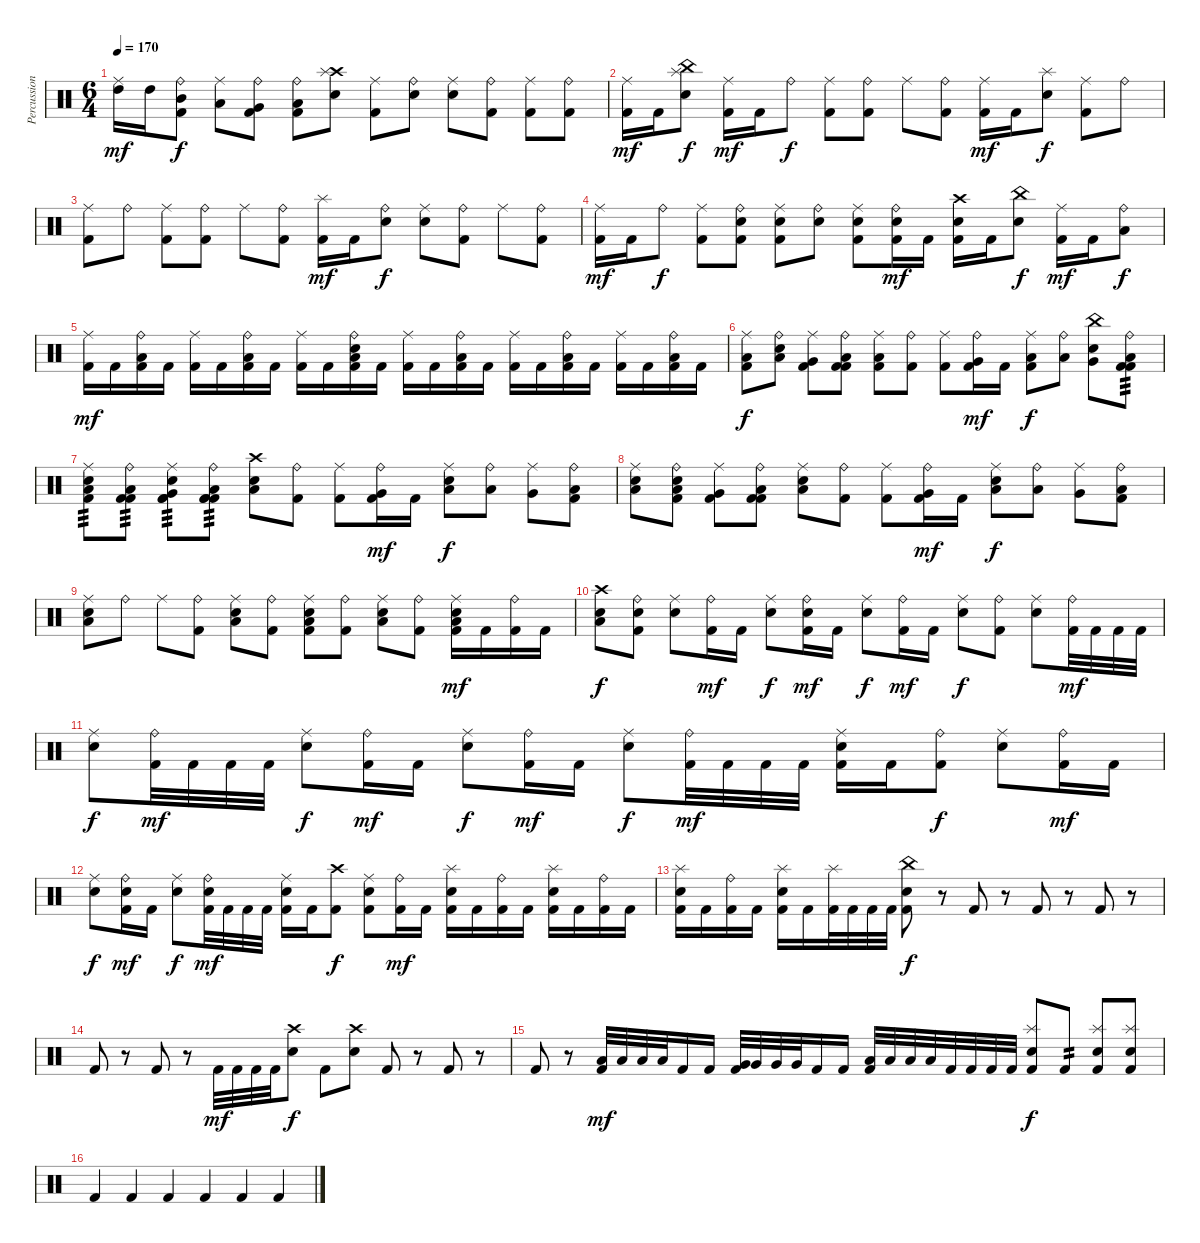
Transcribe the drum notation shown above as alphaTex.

\track ("Percussion" "Percussion") {instrument percussion}
\staff {score}
\articulation defaults
\ts (6 4)
\tempo 170
\clef neutral
\ks c
("Ride (middle)" "High Tom (hit)").16{dy mf} "High Tom (hit)".16 ("Ride (bell)" "Mid Tom (hit)" "Kick (hit) 2").8{dy f} ("Ride (middle)" "Low Tom (hit)").8 ("Ride (bell)" "Very Low Tom (hit)" "Kick (hit) 2").8 ("Ride (bell)" "Low Floor Tom (hit)" "Kick (hit) 2").8 ("Crash high (hit)" "Splash (hit)" "Snare (hit) 2").8 ("Ride (middle)" "Kick (hit) 2").8 ("Ride (bell)" "Snare (hit) 2").8 ("Ride (middle)" "Snare (hit) 2").8 ("Ride (bell)" "Kick (hit) 2").8 ("Ride (middle)" "Kick (hit) 2").8 ("Ride (bell)" "Kick (hit) 2").8 |
("Ride (middle)" "Kick (hit) 2").16{dy mf} "Kick (hit) 2".16 ("Splash (hit)" "China (hit)" "Snare (hit) 2").8{dy f} ("Ride (middle)" "Kick (hit) 2").16{dy mf} "Kick (hit) 2".16 "Ride (bell)".8{dy f} ("Ride (middle)" "Kick (hit) 2").8 ("Ride (bell)" "Kick (hit) 2").8 "Ride (middle)".8 ("Ride (bell)" "Kick (hit) 2").8 ("Ride (middle)" "Kick (hit) 2").16{dy mf} "Kick (hit) 2".16 ("Splash (hit)" "Snare (hit) 2").8{dy f} ("Ride (middle)" "Kick (hit) 2").8 "Ride (bell)".8 |
("Ride (middle)" "Kick (hit) 2").8 "Ride (bell)".8 ("Ride (middle)" "Kick (hit) 2").8 ("Ride (bell)" "Kick (hit) 2").8 "Ride (middle)".8 ("Ride (bell)" "Kick (hit) 2").8 ("Splash (hit)" "Kick (hit) 2").16{dy mf} "Kick (hit) 2".16 ("Ride (bell)" "Snare (hit) 2").8{dy f} ("Ride (middle)" "Snare (hit) 2").8 ("Ride (bell)" "Kick (hit) 2").8 "Ride (middle)".8 ("Ride (bell)" "Kick (hit) 2").8 |
("Ride (middle)" "Kick (hit) 2").16{dy mf} "Kick (hit) 2".16 "Ride (bell)".8{dy f} ("Ride (middle)" "Kick (hit) 2").8 ("Ride (bell)" "Snare (hit) 2" "Kick (hit) 2").8 ("Ride (middle)" "Snare (hit) 2" "Kick (hit) 2").8 ("Ride (bell)" "Snare (hit) 2").8 ("Ride (middle)" "Snare (hit) 2" "Kick (hit) 2").8 ("Ride (bell)" "Snare (hit) 2" "Kick (hit) 2").16{dy mf} "Kick (hit) 2".16 ("Crash high (hit)" "Snare (hit) 2" "Kick (hit) 2").16 "Kick (hit) 2".16 ("China (hit)" "Snare (hit) 2").8{dy f} ("Ride (middle)" "Kick (hit) 2").16{dy mf} "Kick (hit) 2".16 ("Ride (bell)" "Low Tom (hit)").8{dy f} |
("Ride (middle)" "Kick (hit) 2").16{dy mf} "Kick (hit) 2".16 ("Ride (bell)" "Low Tom (hit)" "Kick (hit) 2").16 "Kick (hit) 2".16 ("Ride (middle)" "Kick (hit) 2").16 "Kick (hit) 2".16 ("Ride (bell)" "Low Tom (hit)" "Kick (hit) 2").16 "Kick (hit) 2".16 ("Ride (middle)" "Kick (hit) 2").16 "Kick (hit) 2".16 ("Ride (bell)" "Low Tom (hit)" "Snare (hit) 2" "Kick (hit) 2").16 "Kick (hit) 2".16 ("Ride (middle)" "Kick (hit) 2").16 "Kick (hit) 2".16 ("Ride (bell)" "Low Tom (hit)" "Kick (hit) 2").16 "Kick (hit) 2".16 ("Ride (middle)" "Kick (hit) 2").16 "Kick (hit) 2".16 ("Ride (bell)" "Low Tom (hit)" "Kick (hit) 2").16 "Kick (hit) 2".16 ("Ride (middle)" "Kick (hit) 2").16 "Kick (hit) 2".16 ("Ride (bell)" "Low Tom (hit)" "Kick (hit) 2").16 "Kick (hit) 2".16 |
("Ride (middle)" "Kick (hit) 2" "Low Floor Tom (hit)").8{dy f} ("Ride (bell)" "Low Tom (hit)" "Snare (hit) 2").8 ("Ride (middle)" "Very Low Tom (hit)" "Kick (hit) 2").8 ("Ride (bell)" "Low Floor Tom (hit)" "Kick (hit) 2" "Kick (hit) 2").8 ("Ride (middle)" "Kick (hit) 2" "Low Floor Tom (hit)").8 ("Ride (bell)" "Kick (hit) 2").8 ("Ride (middle)" "Kick (hit) 2").8 ("Ride (bell)" "Very Low Tom (hit)" "Kick (hit) 2").16{dy mf} "Kick (hit) 2".16 ("Ride (middle)" "Kick (hit) 2" "Low Floor Tom (hit)").8{dy f} ("Ride (bell)" "Low Tom (hit)").8 ("China (hit)" "Very Low Tom (hit)" "Snare (hit) 2").8 ("Ride (bell)" "Low Floor Tom (hit)" "Kick (hit) 2" "Kick (hit) 2").8{tp 3} |
("Ride (middle)" "Snare (hit) 2" "Low Floor Tom (hit)" "Kick (hit) 2").8{tp 3} ("Ride (bell)" "Low Tom (hit)" "Kick (hit) 2" "Kick (hit) 2").8{tp 3} ("Ride (middle)" "Very Low Tom (hit)" "Kick (hit) 2" "Snare (hit) 2" "Kick (hit) 2").8{tp 3} ("Ride (bell)" "Low Floor Tom (hit)" "Kick (hit) 2" "Kick (hit) 2" "Kick (hit) 2").8{tp 3} ("Crash high (hit)" "Snare (hit) 2" "Low Floor Tom (hit)").8 ("Ride (bell)" "Kick (hit) 2").8 ("Ride (middle)" "Kick (hit) 2").8 ("Ride (bell)" "Very Low Tom (hit)" "Kick (hit) 2").16{dy mf} "Kick (hit) 2".16 ("Ride (middle)" "Snare (hit) 2" "Low Floor Tom (hit)").8{dy f} ("Ride (bell)" "Low Tom (hit)").8 ("Ride (middle)" "Very Low Tom (hit)").8 ("Ride (bell)" "Low Floor Tom (hit)" "Kick (hit) 2").8 |
("Ride (middle)" "Snare (hit) 2" "Low Floor Tom (hit)").8 ("Ride (bell)" "Low Tom (hit)" "Kick (hit) 2" "Snare (hit) 2").8 ("Ride (middle)" "Very Low Tom (hit)" "Kick (hit) 2").8 ("Ride (bell)" "Low Floor Tom (hit)" "Kick (hit) 2" "Kick (hit) 2").8 ("Ride (middle)" "Snare (hit) 2" "Low Floor Tom (hit)").8 ("Ride (bell)" "Kick (hit) 2").8 ("Ride (middle)" "Kick (hit) 2").8 ("Ride (bell)" "Very Low Tom (hit)" "Kick (hit) 2").16{dy mf} "Kick (hit) 2".16 ("Ride (middle)" "Snare (hit) 2" "Low Floor Tom (hit)").8{dy f} ("Ride (bell)" "Low Tom (hit)").8 ("Ride (middle)" "Very Low Tom (hit)").8 ("Ride (bell)" "Low Floor Tom (hit)" "Kick (hit) 2").8 |
("Ride (middle)" "Snare (hit) 2" "Low Floor Tom (hit)").8 "Ride (bell)".8 "Ride (middle)".8 ("Ride (bell)" "Kick (hit) 2").8 ("Ride (middle)" "Snare (hit) 2" "Low Floor Tom (hit)").8 ("Ride (bell)" "Kick (hit) 2").8 ("Ride (middle)" "Snare (hit) 2" "Kick (hit) 2" "Low Floor Tom (hit)").8 ("Ride (bell)" "Kick (hit) 2").8 ("Ride (middle)" "Snare (hit) 2" "Low Floor Tom (hit)").8 ("Ride (bell)" "Kick (hit) 2").8 ("Ride (middle)" "Low Floor Tom (hit)" "Snare (hit) 2" "Kick (hit) 2").16{dy mf} "Kick (hit) 2".16 ("Ride (bell)" "Kick (hit) 2").16 "Kick (hit) 2".16 |
("Crash high (hit)" "Snare (hit) 2" "Low Floor Tom (hit)").8{dy f} ("Ride (bell)" "Kick (hit) 2" "Snare (hit) 2").8 ("Ride (middle)" "Snare (hit) 2").8 ("Ride (bell)" "Kick (hit) 2").16{dy mf} "Kick (hit) 2".16 ("Ride (middle)" "Snare (hit) 2").8{dy f} ("Ride (bell)" "Kick (hit) 2" "Snare (hit) 2").16{dy mf} "Kick (hit) 2".16 ("Ride (middle)" "Snare (hit) 2").8{dy f} ("Ride (bell)" "Kick (hit) 2").16{dy mf} "Kick (hit) 2".16 ("Ride (middle)" "Snare (hit) 2").8{dy f} ("Ride (bell)" "Kick (hit) 2").8 ("Ride (middle)" "Snare (hit) 2").8 ("Ride (bell)" "Kick (hit) 2").32{dy mf} "Kick (hit) 2".32 "Kick (hit) 2".32 "Kick (hit) 2".32 |
("Ride (middle)" "Snare (hit) 2").8{dy f} ("Ride (bell)" "Kick (hit) 2").32{dy mf} "Kick (hit) 2".32 "Kick (hit) 2".32 "Kick (hit) 2".32 ("Ride (middle)" "Snare (hit) 2").8{dy f} ("Ride (bell)" "Kick (hit) 2").16{dy mf} "Kick (hit) 2".16 ("Ride (middle)" "Snare (hit) 2").8{dy f} ("Ride (bell)" "Kick (hit) 2").16{dy mf} "Kick (hit) 2".16 ("Ride (middle)" "Snare (hit) 2").8{dy f} ("Ride (bell)" "Kick (hit) 2").32{dy mf} "Kick (hit) 2".32 "Kick (hit) 2".32 "Kick (hit) 2".32 ("Ride (middle)" "Snare (hit) 2" "Kick (hit) 2").16 "Kick (hit) 2".16 ("Ride (bell)" "Kick (hit) 2").8{dy f} ("Ride (middle)" "Snare (hit) 2").8 ("Ride (bell)" "Kick (hit) 2").16{dy mf} "Kick (hit) 2".16 |
("Ride (middle)" "Snare (hit) 2").8{dy f} ("Ride (bell)" "Snare (hit) 2" "Kick (hit) 2").16{dy mf} "Kick (hit) 2".16 ("Ride (middle)" "Snare (hit) 2").8{dy f} ("Ride (bell)" "Snare (hit) 2" "Kick (hit) 2").32{dy mf} "Kick (hit) 2".32 "Kick (hit) 2".32 "Kick (hit) 2".32 ("Ride (middle)" "Snare (hit) 2" "Kick (hit) 2").16 "Kick (hit) 2".16 ("Crash high (hit)" "Kick (hit) 2").8{dy f} ("Ride (middle)" "Snare (hit) 2" "Kick (hit) 2").8 ("Ride (bell)" "Kick (hit) 2").16{dy mf} "Kick (hit) 2".16 ("Splash (hit)" "Snare (hit) 2" "Kick (hit) 2").16 "Kick (hit) 2".16 ("Ride (bell)" "Kick (hit) 2").16 "Kick (hit) 2".16 ("Splash (hit)" "Snare (hit) 2" "Kick (hit) 2").16 "Kick (hit) 2".16 ("Ride (bell)" "Kick (hit) 2").16 "Kick (hit) 2".16 |
("Splash (hit)" "Snare (hit) 2" "Kick (hit) 2").16 "Kick (hit) 2".16 ("Ride (bell)" "Kick (hit) 2").16 "Kick (hit) 2".16 ("Splash (hit)" "Snare (hit) 2" "Kick (hit) 2").16 "Kick (hit) 2".16 ("Splash (hit)" "Kick (hit) 2").32 "Kick (hit) 2".32 "Kick (hit) 2".32 "Kick (hit) 2".32 ("China (hit)" "Snare (hit) 2" "Kick (hit) 2").8{dy f} r.8 "Kick (hit) 2".8 r.8 "Kick (hit) 2".8 r.8 "Kick (hit) 2".8 r.8 |
"Kick (hit) 2".8 r.8 "Kick (hit) 2".8 r.8 "Kick (hit) 2".32{dy mf} "Kick (hit) 2".32 "Kick (hit) 2".32 "Kick (hit) 2".32 ("Crash high (hit)" "Snare (hit) 2").8{dy f} "Kick (hit) 2".8 ("Crash high (hit)" "Snare (hit) 2").8 "Kick (hit) 2".8 r.8 "Kick (hit) 2".8 r.8 |
"Kick (hit) 2".8 r.8 ("Low Tom (hit)" "Kick (hit) 2").32{dy mf} "Low Tom (hit)".32 "Low Tom (hit)".32 "Low Tom (hit)".32 "Kick (hit) 2".16 "Kick (hit) 2".16 ("Very Low Tom (hit)" "Kick (hit) 2").32 "Very Low Tom (hit)".32 "Very Low Tom (hit)".32 "Very Low Tom (hit)".32 "Kick (hit) 2".16 "Kick (hit) 2".16 ("Low Floor Tom (hit)" "Kick (hit) 2").32 "Low Floor Tom (hit)".32 "Low Floor Tom (hit)".32 "Low Floor Tom (hit)".32 "Kick (hit) 2".32 "Kick (hit) 2".32 "Kick (hit) 2".32 "Kick (hit) 2".32 ("Splash (hit)" "Snare (hit) 2" "Kick (hit) 2").8{dy f} "Kick (hit) 2".8{tp 2} ("Splash (hit)" "Snare (hit) 2" "Kick (hit) 2").8 ("Splash (hit)" "Snare (hit) 2" "Kick (hit) 2").8 |
"Kick (hit) 2".4 "Kick (hit) 2".4 "Kick (hit) 2".4 "Kick (hit) 2".4 "Kick (hit) 2".4 "Kick (hit) 2".4
